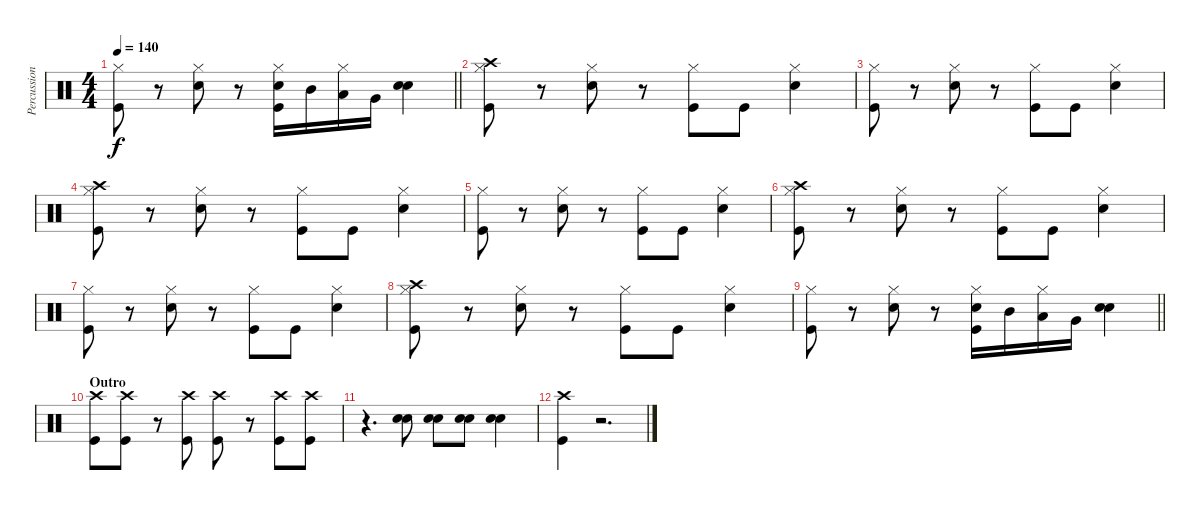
\track ("Percussioni" "Percussion") {instrument percussion}
\staff {score}
\articulation defaults
\ts (4 4)
\tempo 140
\clef neutral
\barLineRight lightlight
\ks c
("Hi-Hat (closed)" "Kick (hit)").8{dy f} r.8 ("Hi-Hat (closed)" "Snare (hit) 2").8 r.8 ("Hi-Hat (closed)" "Snare (hit) 2" "Kick (hit)").16 "Mid Tom (hit)".16 ("Hi-Hat (closed)" "Low Tom (hit)").16 "Very Low Tom (hit)".16 ("Snare (hit) 2" "Snare (hit) 2").4 |
("Crash high (hit)" "Hi-Hat (closed)" "Kick (hit)").8 r.8 ("Hi-Hat (closed)" "Snare (hit) 2").8 r.8 ("Hi-Hat (closed)" "Kick (hit)").8 "Kick (hit)".8 ("Hi-Hat (closed)" "Snare (hit) 2").4 |
("Hi-Hat (closed)" "Kick (hit)").8 r.8 ("Hi-Hat (closed)" "Snare (hit) 2").8 r.8 ("Hi-Hat (closed)" "Kick (hit)").8 "Kick (hit)".8 ("Hi-Hat (closed)" "Snare (hit) 2").4 |
("Crash high (hit)" "Hi-Hat (closed)" "Kick (hit)").8 r.8 ("Hi-Hat (closed)" "Snare (hit) 2").8 r.8 ("Hi-Hat (closed)" "Kick (hit)").8 "Kick (hit)".8 ("Hi-Hat (closed)" "Snare (hit) 2").4 |
("Hi-Hat (closed)" "Kick (hit)").8 r.8 ("Hi-Hat (closed)" "Snare (hit) 2").8 r.8 ("Hi-Hat (closed)" "Kick (hit)").8 "Kick (hit)".8 ("Hi-Hat (closed)" "Snare (hit) 2").4 |
("Crash high (hit)" "Hi-Hat (closed)" "Kick (hit)").8 r.8 ("Hi-Hat (closed)" "Snare (hit) 2").8 r.8 ("Hi-Hat (closed)" "Kick (hit)").8 "Kick (hit)".8 ("Hi-Hat (closed)" "Snare (hit) 2").4 |
("Hi-Hat (closed)" "Kick (hit)").8 r.8 ("Hi-Hat (closed)" "Snare (hit) 2").8 r.8 ("Hi-Hat (closed)" "Kick (hit)").8 "Kick (hit)".8 ("Hi-Hat (closed)" "Snare (hit) 2").4 |
("Crash high (hit)" "Hi-Hat (closed)" "Kick (hit)").8 r.8 ("Hi-Hat (closed)" "Snare (hit) 2").8 r.8 ("Hi-Hat (closed)" "Kick (hit)").8 "Kick (hit)".8 ("Hi-Hat (closed)" "Snare (hit) 2").4 |
\barLineRight lightlight
("Hi-Hat (closed)" "Kick (hit)").8 r.8 ("Hi-Hat (closed)" "Snare (hit) 2").8 r.8 ("Hi-Hat (closed)" "Snare (hit) 2" "Kick (hit)").16 "Mid Tom (hit)".16 ("Hi-Hat (closed)" "Low Tom (hit)").16 "Very Low Tom (hit)".16 ("Snare (hit) 2" "Snare (hit) 2").4 |
\section ("" "Outro")
("Kick (hit)" "Crash high (hit)").8 ("Kick (hit)" "Crash high (hit)").8 r.8 ("Kick (hit)" "Crash high (hit)").8 ("Kick (hit)" "Crash high (hit)").8 r.8 ("Kick (hit)" "Crash high (hit)").8 ("Kick (hit)" "Crash high (hit)").8 |
r.4{d} ("Snare (hit) 2" "Snare (hit) 2").8 ("Snare (hit) 2" "Snare (hit) 2").8 ("Snare (hit) 2" "Snare (hit) 2").8 ("Snare (hit) 2" "Snare (hit) 2").4 |
("Crash high (hit)" "Kick (hit)").4 r.2{d}
